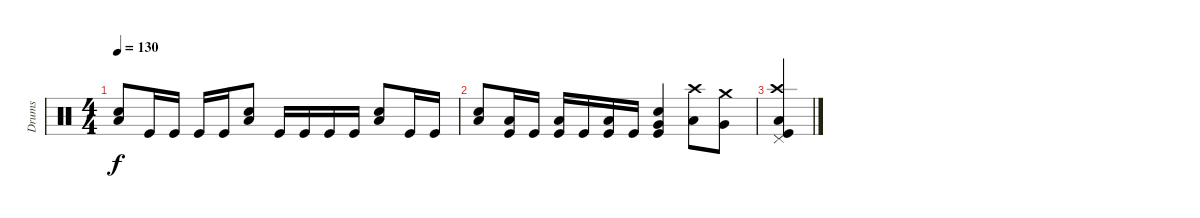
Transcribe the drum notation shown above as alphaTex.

\track ("Drums" "Drums") {instrument percussion}
\staff {score}
\articulation defaults
\ts (4 4)
\tempo 130
\clef neutral
\ks c
("Electric Snare (hit)" "Low Floor Tom (hit)").8{dy f} "Kick (hit)".16 "Kick (hit)".16 "Kick (hit)".16 "Kick (hit)".16 ("Electric Snare (hit)" "Low Floor Tom (hit)").8 "Kick (hit)".16 "Kick (hit)".16 "Kick (hit)".16 "Kick (hit)".16 ("Electric Snare (hit)" "Low Floor Tom (hit)").8 "Kick (hit)".16 "Kick (hit)".16 |
("Electric Snare (hit)" "Low Floor Tom (hit)").8 ("Low Floor Tom (hit)" "Kick (hit)").16 "Kick (hit)".16 ("Low Floor Tom (hit)" "Kick (hit)").16 "Kick (hit)".16 ("Low Floor Tom (hit)" "Kick (hit)").16 "Kick (hit)".16 ("Electric Snare (hit)" "Very Low Tom (hit)" "Kick (hit)").4 ("Crash high (hit)" "Low Floor Tom (hit)").8 ("Crash medium (hit)" "Very Low Tom (hit)").8 |
("Crash high (hit)" "Pedal Hi-Hat (hit)" "Low Floor Tom (hit)" "Kick (hit)").4
